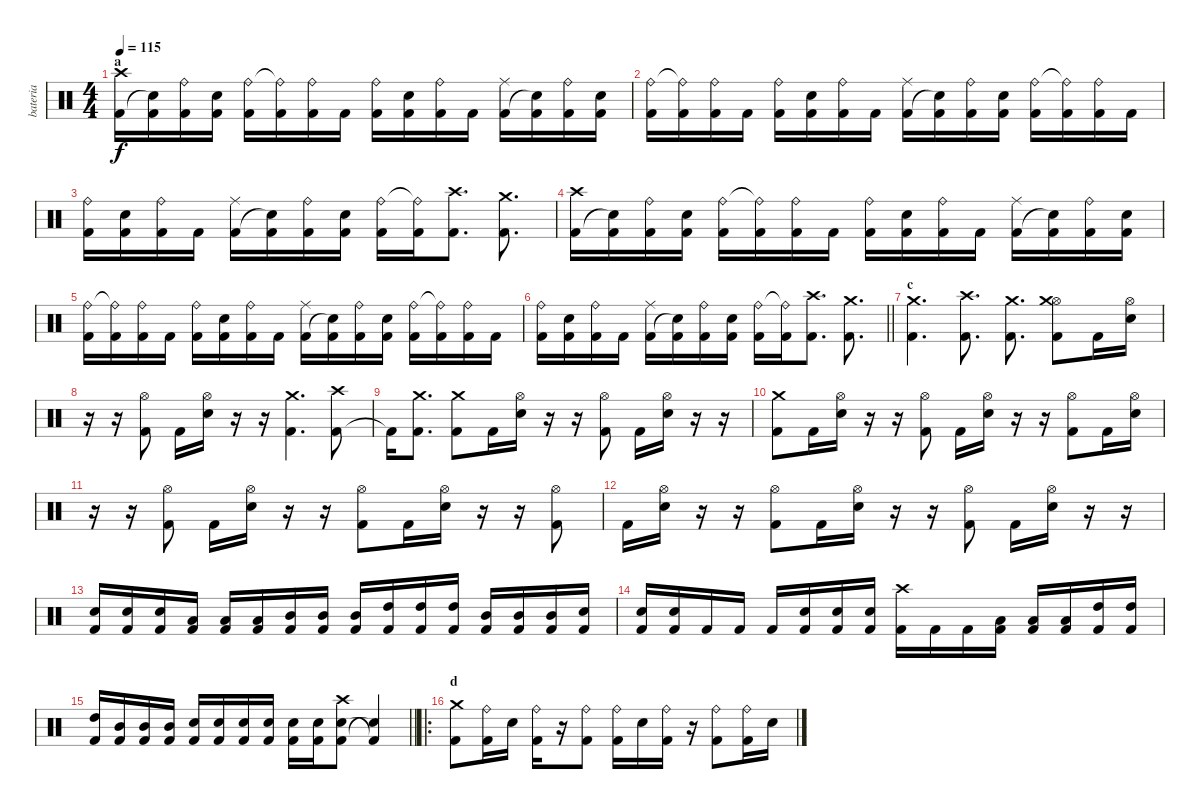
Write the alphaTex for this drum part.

\track ("bateria" "bateria") {mute instrument percussion}
\staff {score}
\articulation defaults
\ts (4 4)
\section ("" "a")
\tempo 115
\clef neutral
\ks c
("Crash high (hit)" "Kick (hit) 2").16{dy f} ("Kick (hit) 2" "Snare (hit)"{t}).16 ("Ride (bell)" "Kick (hit) 2").16 ("Snare (hit) 2" "Kick (hit) 2").16 ("Ride (bell)" "Kick (hit) 2").16 ("Ride (bell)"{t} "Kick (hit) 2").16 ("Kick (hit) 2" "Ride (bell)").16 "Kick (hit) 2".16 ("Ride (bell)" "Kick (hit) 2").16 ("Kick (hit) 2" "Snare (hit) 2").16 ("Kick (hit) 2" "Ride (bell)").16 "Kick (hit) 2".16 ("Ride (middle)" "Kick (hit) 2").16 ("Kick (hit) 2" "Snare (hit)"{t}).16 ("Ride (bell)" "Kick (hit) 2").16 ("Snare (hit) 2" "Kick (hit) 2").16 |
("Ride (bell)" "Kick (hit) 2").16 ("Ride (bell)"{t} "Kick (hit) 2").16 ("Kick (hit) 2" "Ride (bell)").16 "Kick (hit) 2".16 ("Ride (bell)" "Kick (hit) 2").16 ("Kick (hit) 2" "Snare (hit) 2").16 ("Kick (hit) 2" "Ride (bell)").16 "Kick (hit) 2".16 ("Ride (middle)" "Kick (hit) 2").16 ("Kick (hit) 2" "Snare (hit)"{t}).16 ("Ride (bell)" "Kick (hit) 2").16 ("Snare (hit) 2" "Kick (hit) 2").16 ("Ride (bell)" "Kick (hit) 2").16 ("Ride (bell)"{t} "Kick (hit) 2").16 ("Kick (hit) 2" "Ride (bell)").16 "Kick (hit) 2".16 |
("Ride (bell)" "Kick (hit) 2").16 ("Kick (hit) 2" "Snare (hit) 2").16 ("Kick (hit) 2" "Ride (bell)").16 "Kick (hit) 2".16 ("Ride (middle)" "Kick (hit) 2").16 ("Kick (hit) 2" "Snare (hit)"{t}).16 ("Ride (bell)" "Kick (hit) 2").16 ("Snare (hit) 2" "Kick (hit) 2").16 ("Ride (bell)" "Kick (hit) 2").16 ("Ride (bell)"{t} "Kick (hit) 2").16 ("Kick (hit) 2" "Crash high (hit)").8{d} ("Crash medium (hit)" "Kick (hit) 2").8{d} |
("Crash high (hit)" "Kick (hit) 2").16 ("Kick (hit) 2" "Snare (hit)"{t}).16 ("Ride (bell)" "Kick (hit) 2").16 ("Snare (hit) 2" "Kick (hit) 2").16 ("Ride (bell)" "Kick (hit) 2").16 ("Ride (bell)"{t} "Kick (hit) 2").16 ("Kick (hit) 2" "Ride (bell)").16 "Kick (hit) 2".16 ("Ride (bell)" "Kick (hit) 2").16 ("Kick (hit) 2" "Snare (hit) 2").16 ("Kick (hit) 2" "Ride (bell)").16 "Kick (hit) 2".16 ("Ride (middle)" "Kick (hit) 2").16 ("Kick (hit) 2" "Snare (hit)"{t}).16 ("Ride (bell)" "Kick (hit) 2").16 ("Snare (hit) 2" "Kick (hit) 2").16 |
("Ride (bell)" "Kick (hit) 2").16 ("Ride (bell)"{t} "Kick (hit) 2").16 ("Kick (hit) 2" "Ride (bell)").16 "Kick (hit) 2".16 ("Ride (bell)" "Kick (hit) 2").16 ("Kick (hit) 2" "Snare (hit) 2").16 ("Kick (hit) 2" "Ride (bell)").16 "Kick (hit) 2".16 ("Ride (middle)" "Kick (hit) 2").16 ("Kick (hit) 2" "Snare (hit)"{t}).16 ("Ride (bell)" "Kick (hit) 2").16 ("Snare (hit) 2" "Kick (hit) 2").16 ("Ride (bell)" "Kick (hit) 2").16 ("Ride (bell)"{t} "Kick (hit) 2").16 ("Kick (hit) 2" "Ride (bell)").16 "Kick (hit) 2".16 |
\barLineRight lightlight
("Ride (bell)" "Kick (hit) 2").16 ("Kick (hit) 2" "Snare (hit) 2").16 ("Kick (hit) 2" "Ride (bell)").16 "Kick (hit) 2".16 ("Ride (middle)" "Kick (hit) 2").16 ("Kick (hit) 2" "Snare (hit)"{t}).16 ("Ride (bell)" "Kick (hit) 2").16 ("Snare (hit) 2" "Kick (hit) 2").16 ("Ride (bell)" "Kick (hit) 2").16 ("Ride (bell)"{t} "Kick (hit) 2").16 ("Kick (hit) 2" "Crash high (hit)").8{d} ("Crash medium (hit)" "Kick (hit) 2").8{d} |
\section ("" "c")
("Kick (hit) 2" "Crash medium (hit)").4{d} ("Kick (hit) 2" "Crash high (hit)").8{d} ("Kick (hit) 2" "Crash medium (hit)").8{d} ("Kick (hit) 2" "Hi-Hat (open)" "Crash medium (hit)").8 "Kick (hit) 2".16 ("Hi-Hat (open)" "Electric Snare (hit)").16 |
r.16 r.16 ("Kick (hit) 2" "Hi-Hat (open)").8 "Kick (hit) 2".16 ("Hi-Hat (open)" "Electric Snare (hit)").16 r.16 r.16 ("Kick (hit) 2" "Crash medium (hit)").4{d} ("Kick (hit) 2" "Crash high (hit)").8 |
"Kick (hit) 2"{t}.16 ("Kick (hit) 2" "Crash medium (hit)").8{d} ("Kick (hit) 2" "Crash medium (hit)").8 "Kick (hit) 2".16 ("Electric Snare (hit)" "Hi-Hat (open)").16 r.16 r.16 ("Kick (hit) 2" "Hi-Hat (open)").8 "Kick (hit) 2".16 ("Hi-Hat (open)" "Electric Snare (hit)").16 r.16 r.16 |
("Kick (hit) 2" "Crash medium (hit)").8 "Kick (hit) 2".16 ("Electric Snare (hit)" "Hi-Hat (open)").16 r.16 r.16 ("Kick (hit) 2" "Hi-Hat (open)").8 "Kick (hit) 2".16 ("Hi-Hat (open)" "Electric Snare (hit)").16 r.16 r.16 ("Kick (hit) 2" "Hi-Hat (open)").8 "Kick (hit) 2".16 ("Hi-Hat (open)" "Electric Snare (hit)").16 |
r.16 r.16 ("Kick (hit) 2" "Hi-Hat (open)").8 "Kick (hit) 2".16 ("Hi-Hat (open)" "Electric Snare (hit)").16 r.16 r.16 ("Kick (hit) 2" "Hi-Hat (open)").8 "Kick (hit) 2".16 ("Hi-Hat (open)" "Electric Snare (hit)").16 r.16 r.16 ("Kick (hit) 2" "Hi-Hat (open)").8 |
"Kick (hit) 2".16 ("Electric Snare (hit)" "Hi-Hat (open)").16 r.16 r.16 ("Kick (hit) 2" "Hi-Hat (open)").8 "Kick (hit) 2".16 ("Hi-Hat (open)" "Electric Snare (hit)").16 r.16 r.16 ("Kick (hit) 2" "Hi-Hat (open)").8 "Kick (hit) 2".16 ("Hi-Hat (open)" "Electric Snare (hit)").16 r.16 r.16 |
("Kick (hit) 2" "Electric Snare (hit)").16 ("Kick (hit) 2" "Electric Snare (hit)").16 ("Kick (hit) 2" "Electric Snare (hit)").16 ("Kick (hit) 2" "Low Tom (hit)").16 ("Kick (hit) 2" "Low Tom (hit)").16 ("Kick (hit) 2" "Low Tom (hit)").16 ("Kick (hit) 2" "Mid Tom (hit)").16 ("Kick (hit) 2" "Mid Tom (hit)").16 ("Kick (hit) 2" "Mid Tom (hit)").16 ("Kick (hit) 2" "High Tom (hit)").16 ("Kick (hit) 2" "High Tom (hit)").16 ("Kick (hit) 2" "High Tom (hit)").16 ("Kick (hit) 2" "Mid Tom (hit)").16 ("Kick (hit) 2" "Mid Tom (hit)").16 ("Kick (hit) 2" "Mid Tom (hit)").16 ("Kick (hit) 2" "Electric Snare (hit)").16 |
("Kick (hit) 2" "Electric Snare (hit)").16 ("Kick (hit) 2" "Electric Snare (hit)").16 "Kick (hit) 2".16 "Kick (hit) 2".16 "Kick (hit) 2".16 ("Kick (hit) 2" "Electric Snare (hit)").16 ("Kick (hit) 2" "Electric Snare (hit)").16 ("Kick (hit) 2" "Electric Snare (hit)").16 ("Kick (hit) 2" "Crash high (hit)").16 "Kick (hit) 2".16 "Kick (hit) 2".16 ("Kick (hit) 2" "Low Tom (hit)").16 ("Kick (hit) 2" "Low Tom (hit)").16 ("Kick (hit) 2" "Low Tom (hit)").16 ("Kick (hit) 2" "High Tom (hit)").16 ("Kick (hit) 2" "High Tom (hit)").16 |
\barLineRight lightlight
("Kick (hit) 2" "High Tom (hit)").16 ("Kick (hit) 2" "Mid Tom (hit)").16 ("Kick (hit) 2" "Mid Tom (hit)").16 ("Kick (hit) 2" "Mid Tom (hit)").16 ("Kick (hit) 2" "Electric Snare (hit)").16 ("Kick (hit) 2" "Electric Snare (hit)").16 ("Kick (hit) 2" "Electric Snare (hit)").16 ("Kick (hit) 2" "Electric Snare (hit)").16 ("Kick (hit) 2" "Electric Snare (hit)").16 ("Kick (hit) 2" "Electric Snare (hit)").16 ("Kick (hit) 2" "Electric Snare (hit)" "Crash high (hit)").8 ("Electric Snare (hit)"{t} "Kick (hit) 2"{t}).4 |
\ro
\section ("" "d")
("Kick (hit) 2" "Crash medium (hit)").8 ("Kick (hit) 2" "Ride (bell)").16 "Electric Snare (hit)".16 ("Kick (hit) 2" "Ride (bell)").16 r.16 ("Kick (hit) 2" "Ride (bell)").8 ("Kick (hit) 2" "Ride (bell)").16 "Electric Snare (hit)".16 ("Kick (hit) 2" "Ride (bell)").16 r.16 ("Kick (hit) 2" "Ride (bell)").8 ("Kick (hit) 2" "Ride (bell)").16 "Electric Snare (hit)".16
